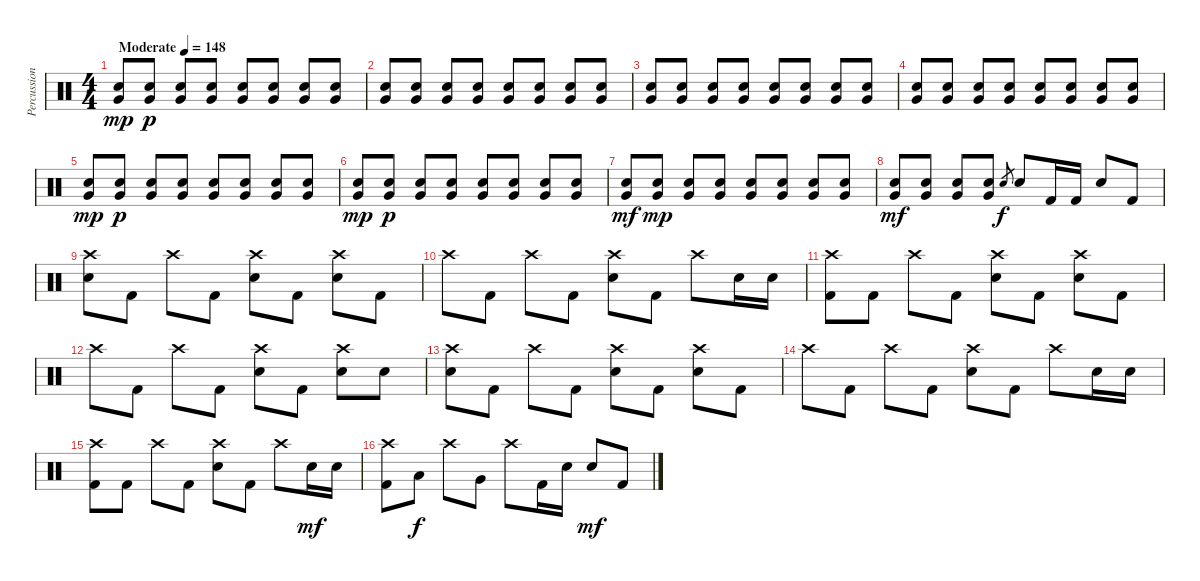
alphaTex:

\track ("Percussion" "Percussion") {instrument percussion}
\staff {score}
\articulation defaults
\ts (4 4)
\tempo (148 "Moderate")
\clef neutral
\ks c
("Very Low Tom (hit)" "Snare (hit) 2").8{dy mp} ("Very Low Tom (hit)" "Snare (hit) 2").8{dy p} ("Very Low Tom (hit)" "Snare (hit) 2").8 ("Very Low Tom (hit)" "Snare (hit) 2").8 ("Very Low Tom (hit)" "Snare (hit) 2").8 ("Very Low Tom (hit)" "Snare (hit) 2").8 ("Very Low Tom (hit)" "Snare (hit) 2").8 ("Very Low Tom (hit)" "Snare (hit) 2").8 |
("Very Low Tom (hit)" "Snare (hit) 2").8 ("Very Low Tom (hit)" "Snare (hit) 2").8 ("Very Low Tom (hit)" "Snare (hit) 2").8 ("Very Low Tom (hit)" "Snare (hit) 2").8 ("Very Low Tom (hit)" "Snare (hit) 2").8 ("Very Low Tom (hit)" "Snare (hit) 2").8 ("Very Low Tom (hit)" "Snare (hit) 2").8 ("Very Low Tom (hit)" "Snare (hit) 2").8 |
("Very Low Tom (hit)" "Snare (hit) 2").8 ("Very Low Tom (hit)" "Snare (hit) 2").8 ("Very Low Tom (hit)" "Snare (hit) 2").8 ("Very Low Tom (hit)" "Snare (hit) 2").8 ("Very Low Tom (hit)" "Snare (hit) 2").8 ("Very Low Tom (hit)" "Snare (hit) 2").8 ("Very Low Tom (hit)" "Snare (hit) 2").8 ("Very Low Tom (hit)" "Snare (hit) 2").8 |
("Very Low Tom (hit)" "Snare (hit) 2").8 ("Very Low Tom (hit)" "Snare (hit) 2").8 ("Very Low Tom (hit)" "Snare (hit) 2").8 ("Very Low Tom (hit)" "Snare (hit) 2").8 ("Very Low Tom (hit)" "Snare (hit) 2").8 ("Very Low Tom (hit)" "Snare (hit) 2").8 ("Very Low Tom (hit)" "Snare (hit) 2").8 ("Very Low Tom (hit)" "Snare (hit) 2").8 |
("Very Low Tom (hit)" "Snare (hit) 2").8{dy mp} ("Very Low Tom (hit)" "Snare (hit) 2").8{dy p} ("Very Low Tom (hit)" "Snare (hit) 2").8 ("Very Low Tom (hit)" "Snare (hit) 2").8 ("Very Low Tom (hit)" "Snare (hit) 2").8 ("Very Low Tom (hit)" "Snare (hit) 2").8 ("Very Low Tom (hit)" "Snare (hit) 2").8 ("Very Low Tom (hit)" "Snare (hit) 2").8 |
("Very Low Tom (hit)" "Snare (hit) 2").8{dy mp} ("Very Low Tom (hit)" "Snare (hit) 2").8{dy p} ("Very Low Tom (hit)" "Snare (hit) 2").8 ("Very Low Tom (hit)" "Snare (hit) 2").8 ("Very Low Tom (hit)" "Snare (hit) 2").8 ("Very Low Tom (hit)" "Snare (hit) 2").8 ("Very Low Tom (hit)" "Snare (hit) 2").8 ("Very Low Tom (hit)" "Snare (hit) 2").8 |
("Very Low Tom (hit)" "Snare (hit) 2").8{dy mf} ("Very Low Tom (hit)" "Snare (hit) 2").8{dy mp} ("Very Low Tom (hit)" "Snare (hit) 2").8 ("Very Low Tom (hit)" "Snare (hit) 2").8 ("Very Low Tom (hit)" "Snare (hit) 2").8 ("Very Low Tom (hit)" "Snare (hit) 2").8 ("Very Low Tom (hit)" "Snare (hit) 2").8 ("Very Low Tom (hit)" "Snare (hit) 2").8 |
("Very Low Tom (hit)" "Snare (hit) 2").8{dy mf} ("Very Low Tom (hit)" "Snare (hit) 2").8 ("Very Low Tom (hit)" "Snare (hit) 2").8 ("Very Low Tom (hit)" "Snare (hit) 2").8 "Snare (hit) 2".8{gr dy f} "Snare (hit) 2".8 "Kick (hit) 2".16 "Kick (hit) 2".16 "Snare (hit) 2".8 "Kick (hit) 2".8 |
("Crash high (hit)" "Snare (hit) 2").8 "Kick (hit) 2".8 "Crash high (hit)".8 "Kick (hit) 2".8 ("Crash high (hit)" "Snare (hit) 2").8 "Kick (hit) 2".8 ("Crash high (hit)" "Snare (hit) 2").8 "Kick (hit) 2".8 |
"Crash high (hit)".8 "Kick (hit) 2".8 "Crash high (hit)".8 "Kick (hit) 2".8 ("Crash high (hit)" "Snare (hit) 2").8 "Kick (hit) 2".8 "Crash high (hit)".8 "Snare (hit) 2".16 "Snare (hit) 2".16 |
("Crash high (hit)" "Kick (hit) 2").8 "Kick (hit) 2".8 "Crash high (hit)".8 "Kick (hit) 2".8 ("Crash high (hit)" "Snare (hit) 2").8 "Kick (hit) 2".8 ("Crash high (hit)" "Snare (hit) 2").8 "Kick (hit) 2".8 |
"Crash high (hit)".8 "Kick (hit) 2".8 "Crash high (hit)".8 "Kick (hit) 2".8 ("Crash high (hit)" "Snare (hit) 2").8 "Kick (hit) 2".8 ("Crash high (hit)" "Snare (hit) 2").8 "Snare (hit) 2".8 |
("Crash high (hit)" "Snare (hit) 2").8 "Kick (hit) 2".8 "Crash high (hit)".8 "Kick (hit) 2".8 ("Crash high (hit)" "Snare (hit) 2").8 "Kick (hit) 2".8 ("Crash high (hit)" "Snare (hit) 2").8 "Kick (hit) 2".8 |
"Crash high (hit)".8 "Kick (hit) 2".8 "Crash high (hit)".8 "Kick (hit) 2".8 ("Crash high (hit)" "Snare (hit) 2").8 "Kick (hit) 2".8 "Crash high (hit)".8 "Snare (hit) 2".16 "Snare (hit) 2".16 |
("Crash high (hit)" "Kick (hit) 2").8 "Kick (hit) 2".8 "Crash high (hit)".8 "Kick (hit) 2".8 ("Crash high (hit)" "Snare (hit) 2").8 "Kick (hit) 2".8 "Crash high (hit)".8 "Snare (hit) 2".16{dy mf} "Snare (hit) 2".16 |
("Crash high (hit)" "Kick (hit) 2").8 "Low Tom (hit)".8{dy f} "Crash high (hit)".8 "Very Low Tom (hit)".8 "Crash high (hit)".8 "Kick (hit) 2".16 "Snare (hit) 2".16 "Snare (hit) 2".8{dy mf} "Kick (hit) 2".8
